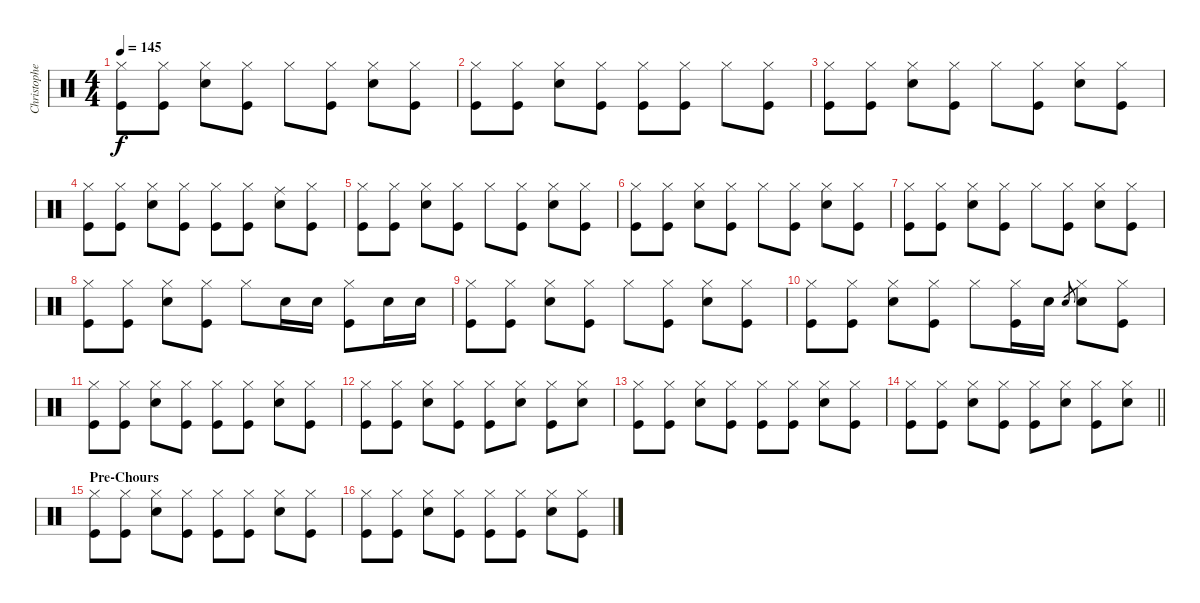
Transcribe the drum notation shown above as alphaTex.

\track ("Christopher - Drums" "Christophe") {instrument percussion}
\staff {score}
\articulation defaults
\ts (4 4)
\tempo 145
\clef neutral
\ks c
("Hi-Hat (closed)" "Kick (hit)").8{dy f} ("Hi-Hat (closed)" "Kick (hit)").8 ("Hi-Hat (closed)" "Snare (hit) 2").8 ("Hi-Hat (closed)" "Kick (hit)").8 "Hi-Hat (closed)".8 ("Hi-Hat (closed)" "Kick (hit)").8 ("Hi-Hat (closed)" "Snare (hit) 2").8 ("Hi-Hat (closed)" "Kick (hit)").8 |
("Hi-Hat (closed)" "Kick (hit)").8 ("Hi-Hat (closed)" "Kick (hit)").8 ("Hi-Hat (closed)" "Snare (hit) 2").8 ("Hi-Hat (closed)" "Kick (hit)").8 ("Hi-Hat (closed)" "Kick (hit)").8 ("Hi-Hat (closed)" "Kick (hit)").8 "Hi-Hat (closed)".8 ("Hi-Hat (closed)" "Kick (hit)").8 |
("Hi-Hat (closed)" "Kick (hit)").8 ("Hi-Hat (closed)" "Kick (hit)").8 ("Hi-Hat (closed)" "Snare (hit) 2").8 ("Hi-Hat (closed)" "Kick (hit)").8 "Hi-Hat (closed)".8 ("Hi-Hat (closed)" "Kick (hit)").8 ("Hi-Hat (closed)" "Snare (hit) 2").8 ("Hi-Hat (closed)" "Kick (hit)").8 |
("Hi-Hat (closed)" "Kick (hit)").8 ("Hi-Hat (closed)" "Kick (hit)").8 ("Hi-Hat (closed)" "Snare (hit) 2").8 ("Hi-Hat (closed)" "Kick (hit)").8 ("Hi-Hat (closed)" "Kick (hit)").8 ("Hi-Hat (closed)" "Kick (hit)").8 ("Ride (middle)" "Snare (hit) 2").8 ("Hi-Hat (closed)" "Kick (hit)").8 |
("Hi-Hat (closed)" "Kick (hit)").8 ("Hi-Hat (closed)" "Kick (hit)").8 ("Hi-Hat (closed)" "Snare (hit) 2").8 ("Hi-Hat (closed)" "Kick (hit)").8 "Hi-Hat (closed)".8 ("Hi-Hat (closed)" "Kick (hit)").8 ("Hi-Hat (closed)" "Snare (hit) 2").8 ("Hi-Hat (closed)" "Kick (hit)").8 |
("Hi-Hat (closed)" "Kick (hit)").8 ("Hi-Hat (closed)" "Kick (hit)").8 ("Hi-Hat (closed)" "Snare (hit) 2").8 ("Hi-Hat (closed)" "Kick (hit)").8 "Hi-Hat (closed)".8 ("Hi-Hat (closed)" "Kick (hit)").8 ("Hi-Hat (closed)" "Snare (hit) 2").8 ("Hi-Hat (closed)" "Kick (hit)").8 |
("Hi-Hat (closed)" "Kick (hit)").8 ("Hi-Hat (closed)" "Kick (hit)").8 ("Hi-Hat (closed)" "Snare (hit) 2").8 ("Hi-Hat (closed)" "Kick (hit)").8 "Hi-Hat (closed)".8 ("Hi-Hat (closed)" "Kick (hit)").8 ("Hi-Hat (closed)" "Snare (hit) 2").8 ("Hi-Hat (closed)" "Kick (hit)").8 |
("Hi-Hat (closed)" "Kick (hit)").8 ("Hi-Hat (closed)" "Kick (hit)").8 ("Hi-Hat (closed)" "Snare (hit) 2").8 ("Hi-Hat (closed)" "Kick (hit)").8 "Hi-Hat (closed)".8 "Snare (hit) 2".16 "Snare (hit) 2".16 ("Hi-Hat (closed)" "Kick (hit)").8 "Snare (hit) 2".16 "Snare (hit) 2".16 |
("Hi-Hat (closed)" "Kick (hit)").8 ("Hi-Hat (closed)" "Kick (hit)").8 ("Hi-Hat (closed)" "Snare (hit) 2").8 ("Hi-Hat (closed)" "Kick (hit)").8 "Hi-Hat (closed)".8 ("Hi-Hat (closed)" "Kick (hit)").8 ("Hi-Hat (closed)" "Snare (hit) 2").8 ("Hi-Hat (closed)" "Kick (hit)").8 |
("Hi-Hat (closed)" "Kick (hit)").8 ("Hi-Hat (closed)" "Kick (hit)").8 ("Hi-Hat (closed)" "Snare (hit) 2").8 ("Hi-Hat (closed)" "Kick (hit)").8 "Hi-Hat (closed)".8 ("Hi-Hat (closed)" "Kick (hit)").16 "Snare (hit) 2".16 "Snare (hit) 2".8{gr} ("Hi-Hat (closed)" "Snare (hit) 2").8 ("Hi-Hat (closed)" "Kick (hit)").8 |
("Hi-Hat (closed)" "Kick (hit)").8 ("Hi-Hat (closed)" "Kick (hit)").8 ("Hi-Hat (closed)" "Snare (hit) 2").8 ("Hi-Hat (closed)" "Kick (hit)").8 ("Hi-Hat (closed)" "Kick (hit)").8 ("Hi-Hat (closed)" "Kick (hit)").8 ("Hi-Hat (closed)" "Snare (hit) 2").8 ("Hi-Hat (closed)" "Kick (hit)").8 |
("Hi-Hat (closed)" "Kick (hit)").8 ("Hi-Hat (closed)" "Kick (hit)").8 ("Hi-Hat (closed)" "Snare (hit) 2").8 ("Hi-Hat (closed)" "Kick (hit)").8 ("Hi-Hat (closed)" "Kick (hit)").8 ("Hi-Hat (closed)" "Snare (hit) 2").8 ("Hi-Hat (closed)" "Kick (hit)").8 ("Hi-Hat (closed)" "Snare (hit) 2").8 |
("Hi-Hat (closed)" "Kick (hit)").8 ("Hi-Hat (closed)" "Kick (hit)").8 ("Hi-Hat (closed)" "Snare (hit) 2").8 ("Hi-Hat (closed)" "Kick (hit)").8 ("Hi-Hat (closed)" "Kick (hit)").8 ("Hi-Hat (closed)" "Kick (hit)").8 ("Hi-Hat (closed)" "Snare (hit) 2").8 ("Hi-Hat (closed)" "Kick (hit)").8 |
\barLineRight lightlight
("Hi-Hat (closed)" "Kick (hit)").8 ("Hi-Hat (closed)" "Kick (hit)").8 ("Hi-Hat (closed)" "Snare (hit) 2").8 ("Hi-Hat (closed)" "Kick (hit)").8 ("Hi-Hat (closed)" "Kick (hit)").8 ("Hi-Hat (closed)" "Snare (hit) 2").8 ("Hi-Hat (closed)" "Kick (hit)").8 ("Hi-Hat (closed)" "Snare (hit) 2").8 |
\section ("" "Pre-Chours")
("Hi-Hat (closed)" "Kick (hit)").8 ("Hi-Hat (closed)" "Kick (hit)").8 ("Hi-Hat (closed)" "Snare (hit) 2").8 ("Hi-Hat (closed)" "Kick (hit)").8 ("Hi-Hat (closed)" "Kick (hit)").8 ("Hi-Hat (closed)" "Kick (hit)").8 ("Hi-Hat (closed)" "Snare (hit) 2").8 ("Hi-Hat (closed)" "Kick (hit)").8 |
("Hi-Hat (closed)" "Kick (hit)").8 ("Hi-Hat (closed)" "Kick (hit)").8 ("Hi-Hat (closed)" "Snare (hit) 2").8 ("Hi-Hat (closed)" "Kick (hit)").8 ("Hi-Hat (closed)" "Kick (hit)").8 ("Hi-Hat (closed)" "Kick (hit)").8 ("Hi-Hat (closed)" "Snare (hit) 2").8 ("Hi-Hat (closed)" "Kick (hit)").8
